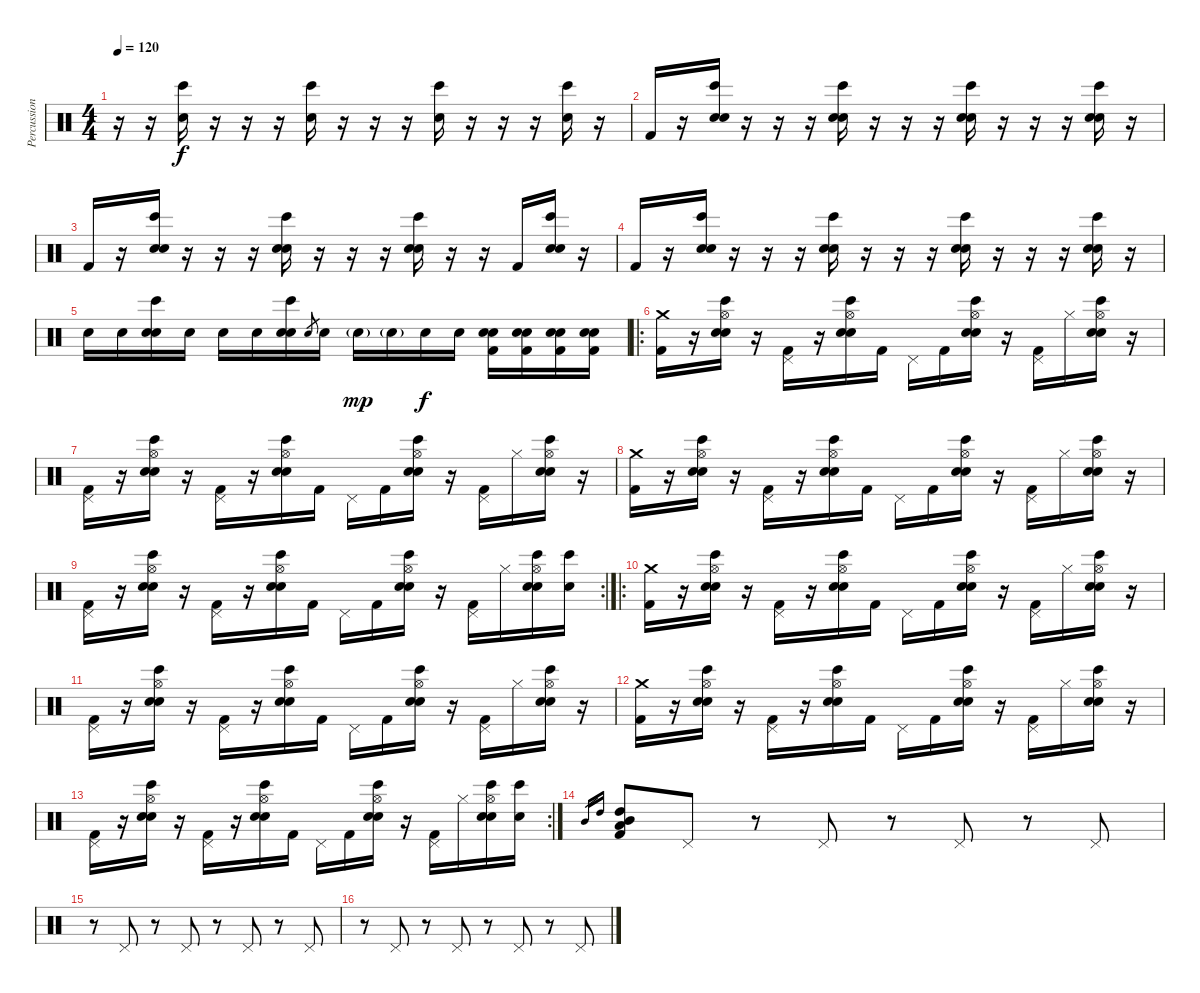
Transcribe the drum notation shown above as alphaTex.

\track ("Percussion" "Percussion") {instrument percussion}
\staff {score}
\articulation defaults
\ts (4 4)
\tempo 120
\clef neutral
\ks c
r.16{dy f} r.16 ("Electric Snare (hit)" "Bongo High (hit)").16 r.16 r.16 r.16 ("Electric Snare (hit)" "Bongo High (hit)").16 r.16 r.16 r.16 ("Electric Snare (hit)" "Bongo High (hit)").16 r.16 r.16 r.16 ("Electric Snare (hit)" "Bongo High (hit)").16 r.16 |
"Kick (hit) 2".16 r.16 ("Electric Snare (hit)" "Snare (hit) 2" "Bongo High (hit)").16 r.16 r.16 r.16 ("Electric Snare (hit)" "Snare (hit) 2" "Bongo High (hit)").16 r.16 r.16 r.16 ("Electric Snare (hit)" "Snare (hit) 2" "Bongo High (hit)").16 r.16 r.16 r.16 ("Electric Snare (hit)" "Snare (hit) 2" "Bongo High (hit)").16 r.16 |
"Kick (hit) 2".16 r.16 ("Electric Snare (hit)" "Snare (hit) 2" "Bongo High (hit)").16 r.16 r.16 r.16 ("Electric Snare (hit)" "Snare (hit) 2" "Bongo High (hit)").16 r.16 r.16 r.16 ("Electric Snare (hit)" "Snare (hit) 2" "Bongo High (hit)").16 r.16 r.16 "Kick (hit) 2".16 ("Electric Snare (hit)" "Snare (hit) 2" "Bongo High (hit)").16 r.16 |
"Kick (hit) 2".16 r.16 ("Electric Snare (hit)" "Snare (hit) 2" "Bongo High (hit)").16 r.16 r.16 r.16 ("Electric Snare (hit)" "Snare (hit) 2" "Bongo High (hit)").16 r.16 r.16 r.16 ("Electric Snare (hit)" "Snare (hit) 2" "Bongo High (hit)").16 r.16 r.16 r.16 ("Electric Snare (hit)" "Snare (hit) 2" "Bongo High (hit)").16 r.16 |
"Electric Snare (hit)".16 "Electric Snare (hit)".16 ("Electric Snare (hit)" "Snare (hit) 2" "Bongo High (hit)").16 "Electric Snare (hit)".16 "Electric Snare (hit)".16 "Electric Snare (hit)".16 ("Electric Snare (hit)" "Snare (hit) 2" "Bongo High (hit)").16 "Electric Snare (hit)".8{gr} "Electric Snare (hit)".16 "Electric Snare (hit)"{g}.16{dy mp} "Electric Snare (hit)"{g}.16 "Electric Snare (hit)".16{dy f} "Electric Snare (hit)".16 ("Snare (hit) 2" "Electric Snare (hit)" "Kick (hit) 2").16 ("Snare (hit) 2" "Electric Snare (hit)" "Kick (hit) 2").16 ("Snare (hit) 2" "Electric Snare (hit)" "Kick (hit) 2").16 ("Snare (hit) 2" "Electric Snare (hit)" "Kick (hit) 2").16 |
\ro
("Crash medium (hit)" "Kick (hit) 2").16 r.16 ("Hi-Hat (open)" "Electric Snare (hit)" "Snare (hit) 2" "Bongo High (hit)").16 r.16 ("Pedal Hi-Hat (hit)" "Kick (hit) 2").16 r.16 ("Hi-Hat (open)" "Electric Snare (hit)" "Snare (hit) 2" "Bongo High (hit)").16 "Kick (hit) 2".16 "Pedal Hi-Hat (hit)".16 "Kick (hit) 2".16 ("Hi-Hat (open)" "Electric Snare (hit)" "Snare (hit) 2" "Bongo High (hit)").16 r.16 ("Pedal Hi-Hat (hit)" "Kick (hit) 2").16 "Hi-Hat (closed)".16 ("Hi-Hat (open)" "Electric Snare (hit)" "Snare (hit) 2" "Bongo High (hit)").16 r.16 |
("Pedal Hi-Hat (hit)" "Kick (hit) 2").16 r.16 ("Hi-Hat (open)" "Electric Snare (hit)" "Snare (hit) 2" "Bongo High (hit)").16 r.16 ("Pedal Hi-Hat (hit)" "Kick (hit) 2").16 r.16 ("Hi-Hat (open)" "Electric Snare (hit)" "Snare (hit) 2" "Bongo High (hit)").16 "Kick (hit) 2".16 "Pedal Hi-Hat (hit)".16 "Kick (hit) 2".16 ("Hi-Hat (open)" "Electric Snare (hit)" "Snare (hit) 2" "Bongo High (hit)").16 r.16 ("Pedal Hi-Hat (hit)" "Kick (hit) 2").16 "Hi-Hat (closed)".16 ("Hi-Hat (open)" "Electric Snare (hit)" "Snare (hit) 2" "Bongo High (hit)").16 r.16 |
("Crash medium (hit)" "Kick (hit) 2").16 r.16 ("Hi-Hat (open)" "Electric Snare (hit)" "Snare (hit) 2" "Bongo High (hit)").16 r.16 ("Pedal Hi-Hat (hit)" "Kick (hit) 2").16 r.16 ("Hi-Hat (open)" "Electric Snare (hit)" "Snare (hit) 2" "Bongo High (hit)").16 "Kick (hit) 2".16 "Pedal Hi-Hat (hit)".16 "Kick (hit) 2".16 ("Hi-Hat (open)" "Electric Snare (hit)" "Snare (hit) 2" "Bongo High (hit)").16 r.16 ("Pedal Hi-Hat (hit)" "Kick (hit) 2").16 "Hi-Hat (closed)".16 ("Hi-Hat (open)" "Electric Snare (hit)" "Snare (hit) 2" "Bongo High (hit)").16 r.16 |
\rc 2
("Pedal Hi-Hat (hit)" "Kick (hit) 2").16 r.16 ("Hi-Hat (open)" "Electric Snare (hit)" "Snare (hit) 2" "Bongo High (hit)").16 r.16 ("Pedal Hi-Hat (hit)" "Kick (hit) 2").16 r.16 ("Hi-Hat (open)" "Electric Snare (hit)" "Snare (hit) 2" "Bongo High (hit)").16 "Kick (hit) 2".16 "Pedal Hi-Hat (hit)".16 "Kick (hit) 2".16 ("Hi-Hat (open)" "Electric Snare (hit)" "Snare (hit) 2" "Bongo High (hit)").16 r.16 ("Pedal Hi-Hat (hit)" "Kick (hit) 2").16 "Hi-Hat (closed)".16 ("Hi-Hat (open)" "Electric Snare (hit)" "Snare (hit) 2" "Bongo High (hit)").16 ("Electric Snare (hit)" "Bongo High (hit)").16 |
\ro
("Crash medium (hit)" "Kick (hit) 2").16 r.16 ("Hi-Hat (open)" "Electric Snare (hit)" "Snare (hit) 2" "Bongo High (hit)").16 r.16 ("Pedal Hi-Hat (hit)" "Kick (hit) 2").16 r.16 ("Hi-Hat (open)" "Electric Snare (hit)" "Snare (hit) 2" "Bongo High (hit)").16 "Kick (hit) 2".16 "Pedal Hi-Hat (hit)".16 "Kick (hit) 2".16 ("Hi-Hat (open)" "Electric Snare (hit)" "Snare (hit) 2" "Bongo High (hit)").16 r.16 ("Pedal Hi-Hat (hit)" "Kick (hit) 2").16 "Hi-Hat (closed)".16 ("Hi-Hat (open)" "Electric Snare (hit)" "Snare (hit) 2" "Bongo High (hit)").16 r.16 |
("Pedal Hi-Hat (hit)" "Kick (hit) 2").16 r.16 ("Hi-Hat (open)" "Electric Snare (hit)" "Snare (hit) 2" "Bongo High (hit)").16 r.16 ("Pedal Hi-Hat (hit)" "Kick (hit) 2").16 r.16 ("Hi-Hat (open)" "Electric Snare (hit)" "Snare (hit) 2" "Bongo High (hit)").16 "Kick (hit) 2".16 "Pedal Hi-Hat (hit)".16 "Kick (hit) 2".16 ("Hi-Hat (open)" "Electric Snare (hit)" "Snare (hit) 2" "Bongo High (hit)").16 r.16 ("Pedal Hi-Hat (hit)" "Kick (hit) 2").16 "Hi-Hat (closed)".16 ("Hi-Hat (open)" "Electric Snare (hit)" "Snare (hit) 2" "Bongo High (hit)").16 r.16 |
("Crash medium (hit)" "Kick (hit) 2").16 r.16 ("Hi-Hat (open)" "Electric Snare (hit)" "Snare (hit) 2" "Bongo High (hit)").16 r.16 ("Pedal Hi-Hat (hit)" "Kick (hit) 2").16 r.16 ("Hi-Hat (open)" "Electric Snare (hit)" "Snare (hit) 2" "Bongo High (hit)").16 "Kick (hit) 2".16 "Pedal Hi-Hat (hit)".16 "Kick (hit) 2".16 ("Hi-Hat (open)" "Electric Snare (hit)" "Snare (hit) 2" "Bongo High (hit)").16 r.16 ("Pedal Hi-Hat (hit)" "Kick (hit) 2").16 "Hi-Hat (closed)".16 ("Hi-Hat (open)" "Electric Snare (hit)" "Snare (hit) 2" "Bongo High (hit)").16 r.16 |
\rc 2
("Pedal Hi-Hat (hit)" "Kick (hit) 2").16 r.16 ("Hi-Hat (open)" "Electric Snare (hit)" "Snare (hit) 2" "Bongo High (hit)").16 r.16 ("Pedal Hi-Hat (hit)" "Kick (hit) 2").16 r.16 ("Hi-Hat (open)" "Electric Snare (hit)" "Snare (hit) 2" "Bongo High (hit)").16 "Kick (hit) 2".16 "Pedal Hi-Hat (hit)".16 "Kick (hit) 2".16 ("Hi-Hat (open)" "Electric Snare (hit)" "Snare (hit) 2" "Bongo High (hit)").16 r.16 ("Pedal Hi-Hat (hit)" "Kick (hit) 2").16 "Hi-Hat (closed)".16 ("Hi-Hat (open)" "Electric Snare (hit)" "Snare (hit) 2" "Bongo High (hit)").16 ("Electric Snare (hit)" "Bongo High (hit)").16 |
"Mid Tom (hit)".16{gr} "High Tom (hit)".16{gr} ("High Tom (hit)" "Mid Tom (hit)" "Low Tom (hit)" "Kick (hit) 2").8{bu 60} "Pedal Hi-Hat (hit)".8 r.8 "Pedal Hi-Hat (hit)".8 r.8 "Pedal Hi-Hat (hit)".8 r.8 "Pedal Hi-Hat (hit)".8 |
r.8 "Pedal Hi-Hat (hit)".8 r.8 "Pedal Hi-Hat (hit)".8 r.8 "Pedal Hi-Hat (hit)".8 r.8 "Pedal Hi-Hat (hit)".8 |
r.8 "Pedal Hi-Hat (hit)".8 r.8 "Pedal Hi-Hat (hit)".8 r.8 "Pedal Hi-Hat (hit)".8 r.8 "Pedal Hi-Hat (hit)".8
